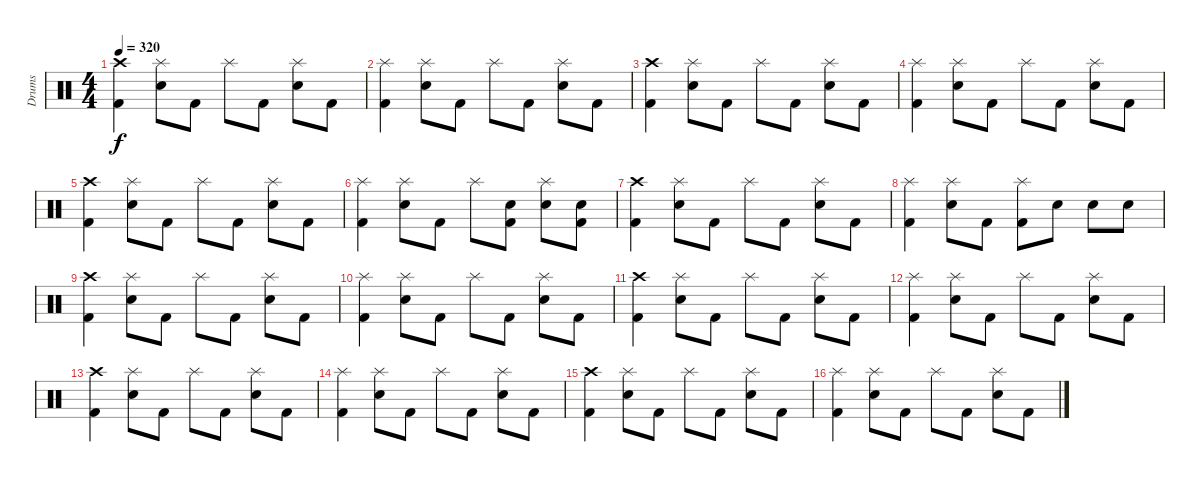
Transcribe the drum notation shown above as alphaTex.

\track ("Drums" "Drums") {instrument percussion}
\staff {score}
\articulation defaults
\ts (4 4)
\tempo 320
\clef neutral
\ks c
("Crash high (hit)" "Kick (hit) 2").4{dy f} ("Splash (hit)" "Electric Snare (hit)").8 "Kick (hit) 2".8 "Splash (hit)".8 "Kick (hit) 2".8 ("Splash (hit)" "Electric Snare (hit)").8 "Kick (hit) 2".8 |
("Splash (hit)" "Kick (hit) 2").4 ("Splash (hit)" "Electric Snare (hit)").8 "Kick (hit) 2".8 "Splash (hit)".8 "Kick (hit) 2".8 ("Splash (hit)" "Electric Snare (hit)").8 "Kick (hit) 2".8 |
("Crash high (hit)" "Kick (hit) 2").4 ("Splash (hit)" "Electric Snare (hit)").8 "Kick (hit) 2".8 "Splash (hit)".8 "Kick (hit) 2".8 ("Splash (hit)" "Electric Snare (hit)").8 "Kick (hit) 2".8 |
("Splash (hit)" "Kick (hit) 2").4 ("Splash (hit)" "Electric Snare (hit)").8 "Kick (hit) 2".8 "Splash (hit)".8 "Kick (hit) 2".8 ("Splash (hit)" "Electric Snare (hit)").8 "Kick (hit) 2".8 |
("Crash high (hit)" "Kick (hit) 2").4 ("Splash (hit)" "Electric Snare (hit)").8 "Kick (hit) 2".8 "Splash (hit)".8 "Kick (hit) 2".8 ("Splash (hit)" "Electric Snare (hit)").8 "Kick (hit) 2".8 |
("Splash (hit)" "Kick (hit) 2").4 ("Splash (hit)" "Electric Snare (hit)").8 "Kick (hit) 2".8 "Splash (hit)".8 ("Electric Snare (hit)" "Kick (hit) 2").8 ("Splash (hit)" "Electric Snare (hit)").8 ("Electric Snare (hit)" "Kick (hit) 2").8 |
("Crash high (hit)" "Kick (hit) 2").4 ("Splash (hit)" "Electric Snare (hit)").8 "Kick (hit) 2".8 "Splash (hit)".8 "Kick (hit) 2".8 ("Splash (hit)" "Electric Snare (hit)").8 "Kick (hit) 2".8 |
("Splash (hit)" "Kick (hit) 2").4 ("Splash (hit)" "Electric Snare (hit)").8 "Kick (hit) 2".8 ("Splash (hit)" "Kick (hit) 2").8 "Electric Snare (hit)".8 "Electric Snare (hit)".8 "Electric Snare (hit)".8 |
("Crash high (hit)" "Kick (hit) 2").4 ("Splash (hit)" "Electric Snare (hit)").8 "Kick (hit) 2".8 "Splash (hit)".8 "Kick (hit) 2".8 ("Splash (hit)" "Electric Snare (hit)").8 "Kick (hit) 2".8 |
("Splash (hit)" "Kick (hit) 2").4 ("Splash (hit)" "Electric Snare (hit)").8 "Kick (hit) 2".8 "Splash (hit)".8 "Kick (hit) 2".8 ("Splash (hit)" "Electric Snare (hit)").8 "Kick (hit) 2".8 |
("Crash high (hit)" "Kick (hit) 2").4 ("Splash (hit)" "Electric Snare (hit)").8 "Kick (hit) 2".8 "Splash (hit)".8 "Kick (hit) 2".8 ("Splash (hit)" "Electric Snare (hit)").8 "Kick (hit) 2".8 |
("Splash (hit)" "Kick (hit) 2").4 ("Splash (hit)" "Electric Snare (hit)").8 "Kick (hit) 2".8 "Splash (hit)".8 "Kick (hit) 2".8 ("Splash (hit)" "Electric Snare (hit)").8 "Kick (hit) 2".8 |
("Crash high (hit)" "Kick (hit) 2").4 ("Splash (hit)" "Electric Snare (hit)").8 "Kick (hit) 2".8 "Splash (hit)".8 "Kick (hit) 2".8 ("Splash (hit)" "Electric Snare (hit)").8 "Kick (hit) 2".8 |
("Splash (hit)" "Kick (hit) 2").4 ("Splash (hit)" "Electric Snare (hit)").8 "Kick (hit) 2".8 "Splash (hit)".8 "Kick (hit) 2".8 ("Splash (hit)" "Electric Snare (hit)").8 "Kick (hit) 2".8 |
("Crash high (hit)" "Kick (hit) 2").4 ("Splash (hit)" "Electric Snare (hit)").8 "Kick (hit) 2".8 "Splash (hit)".8 "Kick (hit) 2".8 ("Splash (hit)" "Electric Snare (hit)").8 "Kick (hit) 2".8 |
("Splash (hit)" "Kick (hit) 2").4 ("Splash (hit)" "Electric Snare (hit)").8 "Kick (hit) 2".8 "Splash (hit)".8 "Kick (hit) 2".8 ("Splash (hit)" "Electric Snare (hit)").8 "Kick (hit) 2".8
